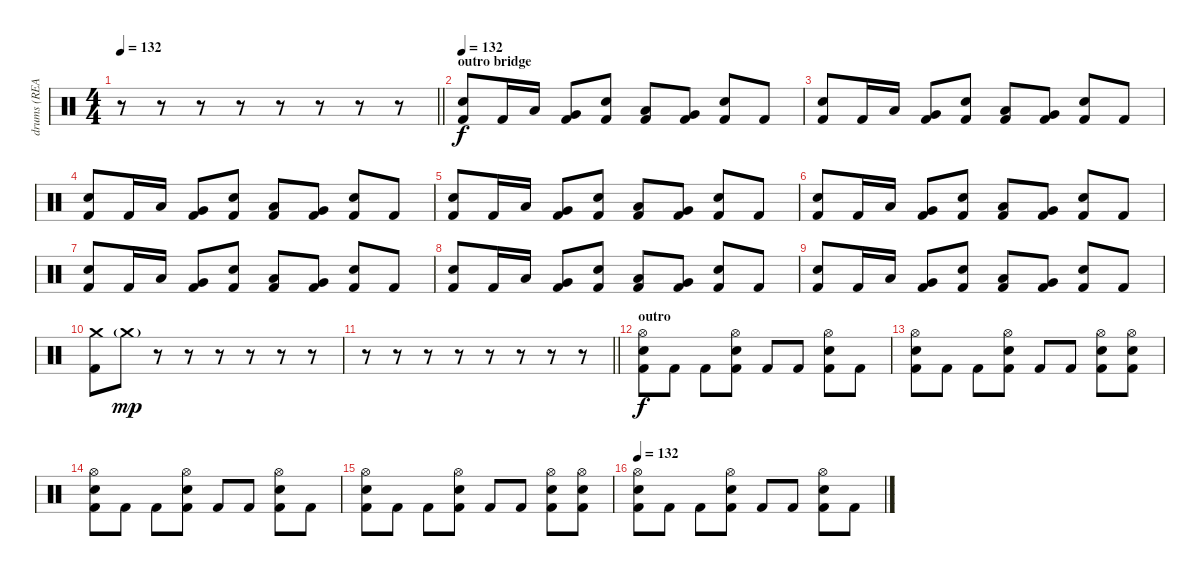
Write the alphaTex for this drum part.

\track ("drums (REAL simple)" "drums (REA") {instrument percussion}
\staff {score}
\articulation defaults
\ts (4 4)
\tempo 132
\clef neutral
\barLineRight lightlight
\ks c
r.8{dy mp} r.8 r.8 r.8 r.8 r.8 r.8 r.8 |
\section ("" "outro bridge")
\tempo 132
("Electric Snare (hit)" "Kick (hit) 2").8{dy f} "Kick (hit) 2".16 "Low Tom (hit)".16 ("Very Low Tom (hit)" "Kick (hit) 2").8 ("Electric Snare (hit)" "Kick (hit) 2").8 ("Low Tom (hit)" "Kick (hit) 2").8 ("Very Low Tom (hit)" "Kick (hit) 2").8 ("Electric Snare (hit)" "Kick (hit) 2").8 "Kick (hit) 2".8 |
("Electric Snare (hit)" "Kick (hit) 2").8 "Kick (hit) 2".16 "Low Tom (hit)".16 ("Very Low Tom (hit)" "Kick (hit) 2").8 ("Electric Snare (hit)" "Kick (hit) 2").8 ("Low Tom (hit)" "Kick (hit) 2").8 ("Very Low Tom (hit)" "Kick (hit) 2").8 ("Electric Snare (hit)" "Kick (hit) 2").8 "Kick (hit) 2".8 |
("Electric Snare (hit)" "Kick (hit) 2").8 "Kick (hit) 2".16 "Low Tom (hit)".16 ("Very Low Tom (hit)" "Kick (hit) 2").8 ("Electric Snare (hit)" "Kick (hit) 2").8 ("Low Tom (hit)" "Kick (hit) 2").8 ("Very Low Tom (hit)" "Kick (hit) 2").8 ("Electric Snare (hit)" "Kick (hit) 2").8 "Kick (hit) 2".8 |
("Electric Snare (hit)" "Kick (hit) 2").8 "Kick (hit) 2".16 "Low Tom (hit)".16 ("Very Low Tom (hit)" "Kick (hit) 2").8 ("Electric Snare (hit)" "Kick (hit) 2").8 ("Low Tom (hit)" "Kick (hit) 2").8 ("Very Low Tom (hit)" "Kick (hit) 2").8 ("Electric Snare (hit)" "Kick (hit) 2").8 "Kick (hit) 2".8 |
("Electric Snare (hit)" "Kick (hit) 2").8 "Kick (hit) 2".16 "Low Tom (hit)".16 ("Very Low Tom (hit)" "Kick (hit) 2").8 ("Electric Snare (hit)" "Kick (hit) 2").8 ("Low Tom (hit)" "Kick (hit) 2").8 ("Very Low Tom (hit)" "Kick (hit) 2").8 ("Electric Snare (hit)" "Kick (hit) 2").8 "Kick (hit) 2".8 |
("Electric Snare (hit)" "Kick (hit) 2").8 "Kick (hit) 2".16 "Low Tom (hit)".16 ("Very Low Tom (hit)" "Kick (hit) 2").8 ("Electric Snare (hit)" "Kick (hit) 2").8 ("Low Tom (hit)" "Kick (hit) 2").8 ("Very Low Tom (hit)" "Kick (hit) 2").8 ("Electric Snare (hit)" "Kick (hit) 2").8 "Kick (hit) 2".8 |
("Electric Snare (hit)" "Kick (hit) 2").8 "Kick (hit) 2".16 "Low Tom (hit)".16 ("Very Low Tom (hit)" "Kick (hit) 2").8 ("Electric Snare (hit)" "Kick (hit) 2").8 ("Low Tom (hit)" "Kick (hit) 2").8 ("Very Low Tom (hit)" "Kick (hit) 2").8 ("Electric Snare (hit)" "Kick (hit) 2").8 "Kick (hit) 2".8 |
("Electric Snare (hit)" "Kick (hit) 2").8 "Kick (hit) 2".16 "Low Tom (hit)".16 ("Very Low Tom (hit)" "Kick (hit) 2").8 ("Electric Snare (hit)" "Kick (hit) 2").8 ("Low Tom (hit)" "Kick (hit) 2").8 ("Very Low Tom (hit)" "Kick (hit) 2").8 ("Electric Snare (hit)" "Kick (hit) 2").8 "Kick (hit) 2".8 |
("Crash medium (hit)" "Kick (hit) 2").8 "Crash medium (hit)"{g}.8{dy mp} r.8 r.8 r.8 r.8 r.8 r.8 |
\barLineRight lightlight
r.8 r.8 r.8 r.8 r.8 r.8 r.8 r.8 |
\section ("" "outro")
("Hi-Hat (open)" "Electric Snare (hit)" "Kick (hit) 2").8{dy f} "Kick (hit) 2".8 "Kick (hit) 2".8 ("Hi-Hat (open)" "Electric Snare (hit)" "Kick (hit) 2").8 "Kick (hit) 2".8 "Kick (hit) 2".8 ("Hi-Hat (open)" "Electric Snare (hit)" "Kick (hit) 2").8 "Kick (hit) 2".8 |
("Hi-Hat (open)" "Electric Snare (hit)" "Kick (hit) 2").8 "Kick (hit) 2".8 "Kick (hit) 2".8 ("Hi-Hat (open)" "Electric Snare (hit)" "Kick (hit) 2").8 "Kick (hit) 2".8 "Kick (hit) 2".8 ("Hi-Hat (open)" "Electric Snare (hit)" "Kick (hit) 2").8 ("Hi-Hat (open)" "Electric Snare (hit)" "Kick (hit) 2").8 |
("Hi-Hat (open)" "Electric Snare (hit)" "Kick (hit) 2").8 "Kick (hit) 2".8 "Kick (hit) 2".8 ("Hi-Hat (open)" "Electric Snare (hit)" "Kick (hit) 2").8 "Kick (hit) 2".8 "Kick (hit) 2".8 ("Hi-Hat (open)" "Electric Snare (hit)" "Kick (hit) 2").8 "Kick (hit) 2".8 |
("Hi-Hat (open)" "Electric Snare (hit)" "Kick (hit) 2").8 "Kick (hit) 2".8 "Kick (hit) 2".8 ("Hi-Hat (open)" "Electric Snare (hit)" "Kick (hit) 2").8 "Kick (hit) 2".8 "Kick (hit) 2".8 ("Hi-Hat (open)" "Electric Snare (hit)" "Kick (hit) 2").8 ("Hi-Hat (open)" "Electric Snare (hit)" "Kick (hit) 2").8 |
\tempo 132
("Hi-Hat (open)" "Electric Snare (hit)" "Kick (hit) 2").8 "Kick (hit) 2".8 "Kick (hit) 2".8 ("Hi-Hat (open)" "Electric Snare (hit)" "Kick (hit) 2").8 "Kick (hit) 2".8 "Kick (hit) 2".8 ("Hi-Hat (open)" "Electric Snare (hit)" "Kick (hit) 2").8 "Kick (hit) 2".8
